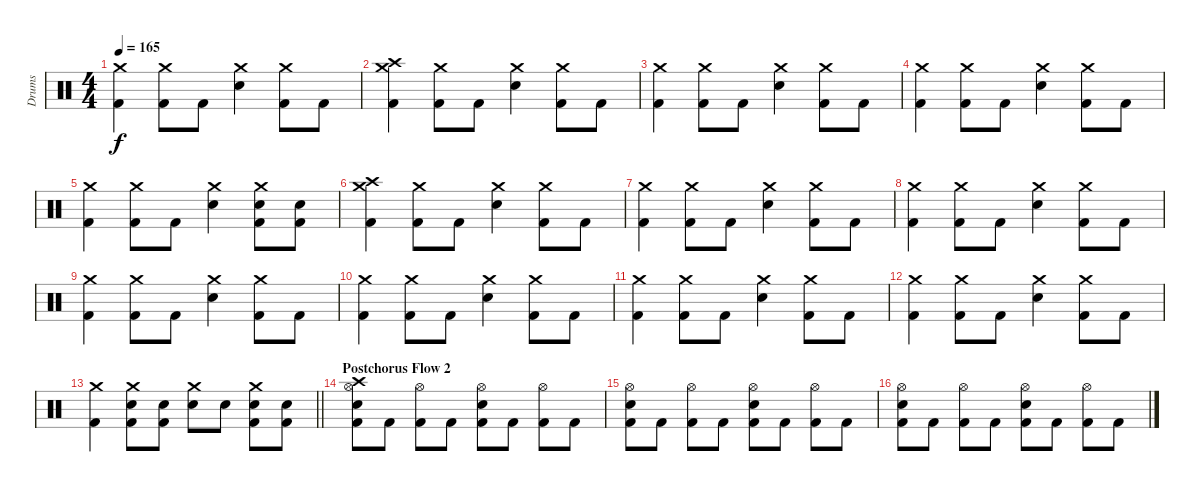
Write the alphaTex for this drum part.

\track ("Drums" "Drums") {instrument percussion}
\staff {score}
\articulation defaults
\ts (4 4)
\tempo 165
\clef neutral
\ks c
("Crash medium (hit)" "Kick (hit) 2").4{dy f} ("Crash medium (hit)" "Kick (hit) 2").8 "Kick (hit) 2".8 ("Crash medium (hit)" "Snare (hit) 2").4 ("Crash medium (hit)" "Kick (hit) 2").8 "Kick (hit) 2".8 |
("Crash high (hit)" "Crash medium (hit)" "Kick (hit) 2").4 ("Crash medium (hit)" "Kick (hit) 2").8 "Kick (hit) 2".8 ("Crash medium (hit)" "Snare (hit) 2").4 ("Crash medium (hit)" "Kick (hit) 2").8 "Kick (hit) 2".8 |
("Crash medium (hit)" "Kick (hit) 2").4 ("Crash medium (hit)" "Kick (hit) 2").8 "Kick (hit) 2".8 ("Crash medium (hit)" "Snare (hit) 2").4 ("Crash medium (hit)" "Kick (hit) 2").8 "Kick (hit) 2".8 |
("Crash medium (hit)" "Kick (hit) 2").4 ("Crash medium (hit)" "Kick (hit) 2").8 "Kick (hit) 2".8 ("Crash medium (hit)" "Snare (hit) 2").4 ("Crash medium (hit)" "Kick (hit) 2").8 "Kick (hit) 2".8 |
("Crash medium (hit)" "Kick (hit) 2").4 ("Crash medium (hit)" "Kick (hit) 2").8 "Kick (hit) 2".8 ("Crash medium (hit)" "Snare (hit) 2").4 ("Crash medium (hit)" "Snare (hit) 2" "Kick (hit) 2").8 ("Snare (hit) 2" "Kick (hit) 2").8 |
("Crash high (hit)" "Crash medium (hit)" "Kick (hit) 2").4 ("Crash medium (hit)" "Kick (hit) 2").8 "Kick (hit) 2".8 ("Crash medium (hit)" "Snare (hit) 2").4 ("Crash medium (hit)" "Kick (hit) 2").8 "Kick (hit) 2".8 |
("Crash medium (hit)" "Kick (hit) 2").4 ("Crash medium (hit)" "Kick (hit) 2").8 "Kick (hit) 2".8 ("Crash medium (hit)" "Snare (hit) 2").4 ("Crash medium (hit)" "Kick (hit) 2").8 "Kick (hit) 2".8 |
("Crash medium (hit)" "Kick (hit) 2").4 ("Crash medium (hit)" "Kick (hit) 2").8 "Kick (hit) 2".8 ("Crash medium (hit)" "Snare (hit) 2").4 ("Crash medium (hit)" "Kick (hit) 2").8 "Kick (hit) 2".8 |
("Crash medium (hit)" "Kick (hit) 2").4 ("Crash medium (hit)" "Kick (hit) 2").8 "Kick (hit) 2".8 ("Crash medium (hit)" "Snare (hit) 2").4 ("Crash medium (hit)" "Kick (hit) 2").8 "Kick (hit) 2".8 |
("Crash medium (hit)" "Kick (hit) 2").4 ("Crash medium (hit)" "Kick (hit) 2").8 "Kick (hit) 2".8 ("Crash medium (hit)" "Snare (hit) 2").4 ("Crash medium (hit)" "Kick (hit) 2").8 "Kick (hit) 2".8 |
("Crash medium (hit)" "Kick (hit) 2").4 ("Crash medium (hit)" "Kick (hit) 2").8 "Kick (hit) 2".8 ("Crash medium (hit)" "Snare (hit) 2").4 ("Crash medium (hit)" "Kick (hit) 2").8 "Kick (hit) 2".8 |
("Crash medium (hit)" "Kick (hit) 2").4 ("Crash medium (hit)" "Kick (hit) 2").8 "Kick (hit) 2".8 ("Crash medium (hit)" "Snare (hit) 2").4 ("Crash medium (hit)" "Kick (hit) 2").8 "Kick (hit) 2".8 |
\barLineRight lightlight
("Crash medium (hit)" "Kick (hit) 2").4 ("Crash medium (hit)" "Snare (hit) 2" "Kick (hit) 2").8 ("Snare (hit) 2" "Kick (hit) 2").8 ("Crash medium (hit)" "Snare (hit) 2").8 "Snare (hit) 2".8 ("Crash medium (hit)" "Snare (hit) 2" "Kick (hit) 2").8 ("Snare (hit) 2" "Kick (hit) 2").8 |
\section ("" "Postchorus Flow 2")
("Crash high (hit)" "Hi-Hat (open)" "Snare (hit) 2" "Kick (hit) 2").8 "Kick (hit) 2".8 ("Hi-Hat (open)" "Kick (hit) 2").8 "Kick (hit) 2".8 ("Hi-Hat (open)" "Snare (hit) 2" "Kick (hit) 2").8 "Kick (hit) 2".8 ("Hi-Hat (open)" "Kick (hit) 2").8 "Kick (hit) 2".8 |
("Hi-Hat (open)" "Snare (hit) 2" "Kick (hit) 2").8 "Kick (hit) 2".8 ("Hi-Hat (open)" "Kick (hit) 2").8 "Kick (hit) 2".8 ("Hi-Hat (open)" "Snare (hit) 2" "Kick (hit) 2").8 "Kick (hit) 2".8 ("Hi-Hat (open)" "Kick (hit) 2").8 "Kick (hit) 2".8 |
("Hi-Hat (open)" "Snare (hit) 2" "Kick (hit) 2").8 "Kick (hit) 2".8 ("Hi-Hat (open)" "Kick (hit) 2").8 "Kick (hit) 2".8 ("Hi-Hat (open)" "Snare (hit) 2" "Kick (hit) 2").8 "Kick (hit) 2".8 ("Hi-Hat (open)" "Kick (hit) 2").8 "Kick (hit) 2".8
